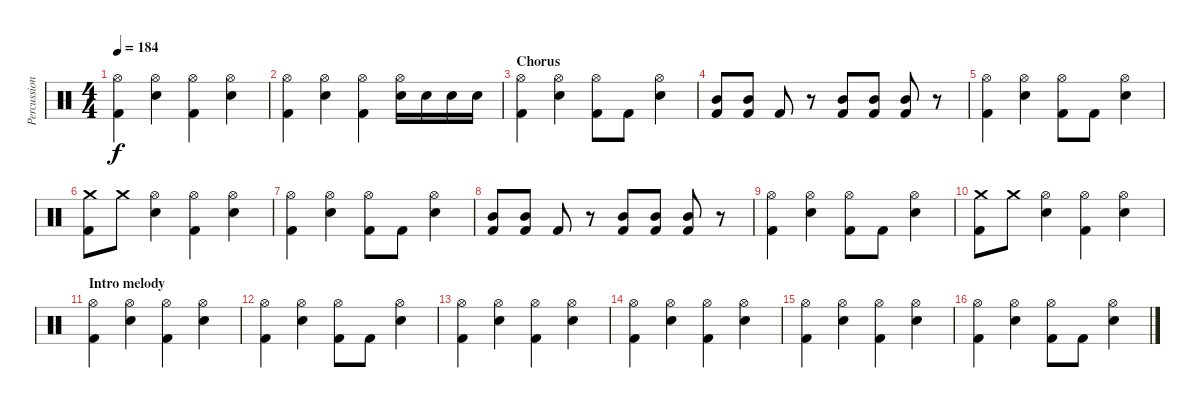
\track ("Percussioni" "Percussion") {instrument percussion}
\staff {score}
\articulation defaults
\ts (4 4)
\tempo 184
\clef neutral
\ks c
("Hi-Hat (open)" "Kick (hit) 2").4{dy f} ("Hi-Hat (open)" "Electric Snare (hit)").4 ("Hi-Hat (open)" "Kick (hit) 2").4 ("Hi-Hat (open)" "Electric Snare (hit)").4 |
("Hi-Hat (open)" "Kick (hit) 2").4 ("Hi-Hat (open)" "Electric Snare (hit)").4 ("Hi-Hat (open)" "Kick (hit) 2").4 ("Hi-Hat (open)" "Electric Snare (hit)").16 "Electric Snare (hit)".16 "Electric Snare (hit)".16 "Electric Snare (hit)".16 |
\section ("" "Chorus")
("Hi-Hat (open)" "Kick (hit) 2").4 ("Hi-Hat (open)" "Electric Snare (hit)").4 ("Hi-Hat (open)" "Kick (hit) 2").8 "Kick (hit) 2".8 ("Hi-Hat (open)" "Electric Snare (hit)").4 |
("Mid Tom (hit)" "Kick (hit) 2").8 ("Mid Tom (hit)" "Kick (hit) 2").8 "Kick (hit) 2".8 r.8 ("Mid Tom (hit)" "Kick (hit) 2").8 ("Mid Tom (hit)" "Kick (hit) 2").8 ("Mid Tom (hit)" "Kick (hit) 2").8 r.8 |
("Hi-Hat (open)" "Kick (hit) 2").4 ("Hi-Hat (open)" "Electric Snare (hit)").4 ("Hi-Hat (open)" "Kick (hit) 2").8 "Kick (hit) 2".8 ("Hi-Hat (open)" "Electric Snare (hit)").4 |
("Crash medium (hit)" "Kick (hit) 2").8 "Crash medium (hit)".8 ("Hi-Hat (open)" "Electric Snare (hit)").4 ("Hi-Hat (open)" "Kick (hit) 2").4 ("Hi-Hat (open)" "Electric Snare (hit)").4 |
("Hi-Hat (open)" "Kick (hit) 2").4 ("Hi-Hat (open)" "Electric Snare (hit)").4 ("Hi-Hat (open)" "Kick (hit) 2").8 "Kick (hit) 2".8 ("Hi-Hat (open)" "Electric Snare (hit)").4 |
("Mid Tom (hit)" "Kick (hit) 2").8 ("Mid Tom (hit)" "Kick (hit) 2").8 "Kick (hit) 2".8 r.8 ("Mid Tom (hit)" "Kick (hit) 2").8 ("Mid Tom (hit)" "Kick (hit) 2").8 ("Mid Tom (hit)" "Kick (hit) 2").8 r.8 |
("Hi-Hat (open)" "Kick (hit) 2").4 ("Hi-Hat (open)" "Electric Snare (hit)").4 ("Hi-Hat (open)" "Kick (hit) 2").8 "Kick (hit) 2".8 ("Hi-Hat (open)" "Electric Snare (hit)").4 |
("Crash medium (hit)" "Kick (hit) 2").8 "Crash medium (hit)".8 ("Hi-Hat (open)" "Electric Snare (hit)").4 ("Hi-Hat (open)" "Kick (hit) 2").4 ("Hi-Hat (open)" "Electric Snare (hit)").4 |
\section ("" "Intro melody")
("Hi-Hat (open)" "Kick (hit) 2").4 ("Hi-Hat (open)" "Electric Snare (hit)").4 ("Hi-Hat (open)" "Kick (hit) 2").4 ("Hi-Hat (open)" "Electric Snare (hit)").4 |
("Hi-Hat (open)" "Kick (hit) 2").4 ("Hi-Hat (open)" "Electric Snare (hit)").4 ("Hi-Hat (open)" "Kick (hit) 2").8 "Kick (hit) 2".8 ("Hi-Hat (open)" "Electric Snare (hit)").4 |
("Hi-Hat (open)" "Kick (hit) 2").4 ("Hi-Hat (open)" "Electric Snare (hit)").4 ("Hi-Hat (open)" "Kick (hit) 2").4 ("Hi-Hat (open)" "Electric Snare (hit)").4 |
("Hi-Hat (open)" "Kick (hit) 2").4 ("Hi-Hat (open)" "Electric Snare (hit)").4 ("Hi-Hat (open)" "Kick (hit) 2").4 ("Hi-Hat (open)" "Electric Snare (hit)").4 |
("Hi-Hat (open)" "Kick (hit) 2").4 ("Hi-Hat (open)" "Electric Snare (hit)").4 ("Hi-Hat (open)" "Kick (hit) 2").4 ("Hi-Hat (open)" "Electric Snare (hit)").4 |
("Hi-Hat (open)" "Kick (hit) 2").4 ("Hi-Hat (open)" "Electric Snare (hit)").4 ("Hi-Hat (open)" "Kick (hit) 2").8 "Kick (hit) 2".8 ("Hi-Hat (open)" "Electric Snare (hit)").4
